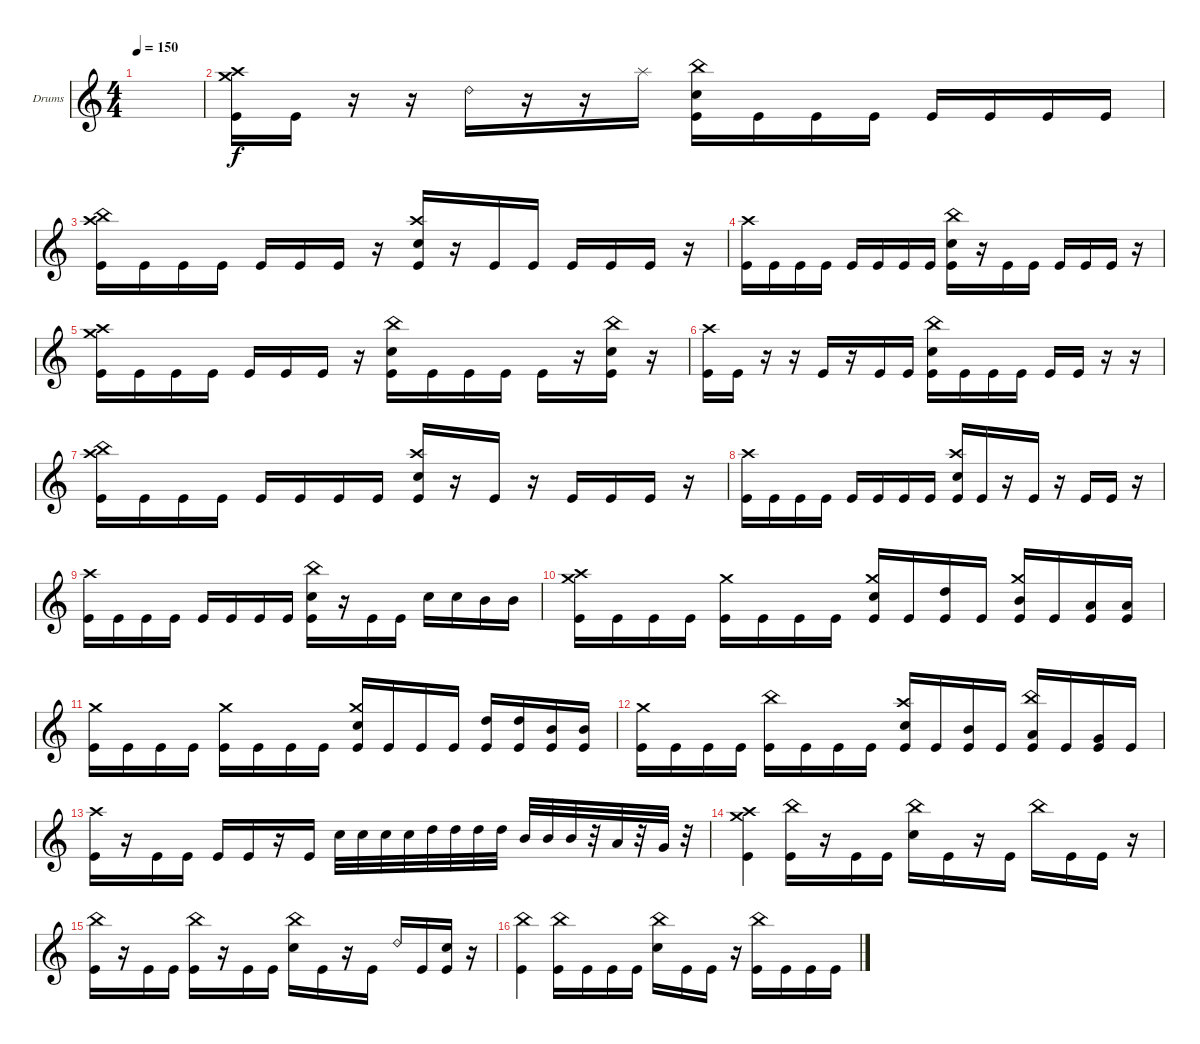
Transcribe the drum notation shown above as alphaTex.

\defaultSystemsLayout 4
\bracketExtendMode groupsimilarinstruments
\firstSystemTrackNameOrientation horizontal
\otherSystemsTrackNameOrientation horizontal
\track ("Drums" "Drums") {instrument percussion}
\staff {score}
\articulation defaults
\ts (4 4)
\tempo 150
\clef g2
\ks c
|
("Kick (hit)" "Crash high (hit)" "Crash medium (hit)").16 "Kick (hit)".16 r.16 r.16 "Ride (bell) 2".16 r.16 r.16 "Splash (hit)".16 ("Kick (hit)" "Snare (hit) 2" "China (hit)").16 "Kick (hit)".16 "Kick (hit)".16 "Kick (hit)".16 "Kick (hit)".16 "Kick (hit)".16 "Kick (hit)".16 "Kick (hit)".16 |
("Kick (hit)" "China (hit)" "Crash high (hit)").16 "Kick (hit)".16 "Kick (hit)".16 "Kick (hit)".16 "Kick (hit)".16 "Kick (hit)".16 "Kick (hit)".16 r.16 ("Kick (hit)" "Snare (hit) 2" "Crash high (hit)").16 r.16 "Kick (hit)".16 "Kick (hit)".16 "Kick (hit)".16 "Kick (hit)".16 "Kick (hit)".16 r.16 |
("Kick (hit)" "Crash high (hit)").16 "Kick (hit)".16 "Kick (hit)".16 "Kick (hit)".16 "Kick (hit)".16 "Kick (hit)".16 "Kick (hit)".16 "Kick (hit)".16 ("Kick (hit)" "Snare (hit) 2" "China (hit)").16 r.16 "Kick (hit)".16 "Kick (hit)".16 "Kick (hit)".16 "Kick (hit)".16 "Kick (hit)".16 r.16 |
("Kick (hit)" "Crash high (hit)" "Crash medium (hit)").16 "Kick (hit)".16 "Kick (hit)".16 "Kick (hit)".16 "Kick (hit)".16 "Kick (hit)".16 "Kick (hit)".16 r.16 ("Kick (hit)" "China (hit)" "Snare (hit) 2").16 "Kick (hit)".16 "Kick (hit)".16 "Kick (hit)".16 "Kick (hit)".16 r.16 ("Kick (hit)" "Snare (hit) 2" "China (hit)").16 r.16 |
("Kick (hit)" "Crash high (hit)").16 "Kick (hit)".16 r.16 r.16 "Kick (hit)".16 r.16 "Kick (hit)".16 "Kick (hit)".16 ("Kick (hit)" "Snare (hit) 2" "China (hit)").16 "Kick (hit)".16 "Kick (hit)".16 "Kick (hit)".16 "Kick (hit)".16 "Kick (hit)".16 r.16 r.16 |
("Kick (hit)" "China (hit)" "Crash high (hit)").16 "Kick (hit)".16 "Kick (hit)".16 "Kick (hit)".16 "Kick (hit)".16 "Kick (hit)".16 "Kick (hit)".16 "Kick (hit)".16 ("Kick (hit)" "Snare (hit) 2" "Crash high (hit)").16 r.16 "Kick (hit)".16 r.16 "Kick (hit)".16 "Kick (hit)".16 "Kick (hit)".16 r.16 |
("Kick (hit)" "Crash high (hit)").16 "Kick (hit)".16 "Kick (hit)".16 "Kick (hit)".16 "Kick (hit)".16 "Kick (hit)".16 "Kick (hit)".16 "Kick (hit)".16 ("Kick (hit)" "Crash high (hit)" "Snare (hit) 2").16 "Kick (hit)".16 r.16 "Kick (hit)".16 r.16 "Kick (hit)".16 "Kick (hit)".16 r.16 |
("Kick (hit)" "Crash high (hit)").16 "Kick (hit)".16 "Kick (hit)".16 "Kick (hit)".16 "Kick (hit)".16 "Kick (hit)".16 "Kick (hit)".16 "Kick (hit)".16 ("Kick (hit)" "Snare (hit) 2" "China (hit)").16 r.16 "Kick (hit)".16 "Kick (hit)".16 "Snare (hit) 2".16 "Snare (hit) 2".16 "Mid Tom (hit)".16 "Mid Tom (hit)".16 |
("Kick (hit)" "Crash high (hit)" "Crash medium (hit)").16 "Kick (hit)".16 "Kick (hit)".16 "Kick (hit)".16 ("Kick (hit)" "Crash medium (hit)").16 "Kick (hit)".16 "Kick (hit)".16 "Kick (hit)".16 ("Kick (hit)" "Crash medium (hit)" "Snare (hit) 2").16 "Kick (hit)".16 ("Kick (hit)" "High Tom (hit)").16 "Kick (hit)".16 ("Kick (hit)" "Crash medium (hit)" "Mid Tom (hit)").16 "Kick (hit)".16 ("Kick (hit)" "Low Tom (hit)").16 ("Kick (hit)" "Low Tom (hit)").16 |
("Kick (hit)" "Crash medium (hit)").16 "Kick (hit)".16 "Kick (hit)".16 "Kick (hit)".16 ("Kick (hit)" "Crash medium (hit)").16 "Kick (hit)".16 "Kick (hit)".16 "Kick (hit)".16 ("Kick (hit)" "Crash medium (hit)" "Snare (hit) 2").16 "Kick (hit)".16 "Kick (hit)".16 "Kick (hit)".16 ("Kick (hit)" "High Tom (hit)").16 ("Kick (hit)" "High Tom (hit)").16 ("Kick (hit)" "Mid Tom (hit)").16 ("Kick (hit)" "Mid Tom (hit)").16 |
("Kick (hit)" "Crash medium (hit)").16 "Kick (hit)".16 "Kick (hit)".16 "Kick (hit)".16 ("Kick (hit)" "China (hit)").16 "Kick (hit)".16 "Kick (hit)".16 "Kick (hit)".16 ("Kick (hit)" "Snare (hit) 2" "Crash high (hit)").16 "Kick (hit)".16 ("Kick (hit)" "Mid Tom (hit)").16 "Kick (hit)".16 ("Kick (hit)" "China (hit)" "Low Tom (hit)").16 "Kick (hit)".16 ("Kick (hit)" "Very Low Tom (hit)").16 "Kick (hit)".16 |
("Kick (hit)" "Crash high (hit)").16 r.16 "Kick (hit)".16 "Kick (hit)".16 "Kick (hit)".16 "Kick (hit)".16 r.16 "Kick (hit)".16 "Snare (hit) 2".32 "Snare (hit) 2".32 "Snare (hit) 2".32 "Snare (hit) 2".32 "High Tom (hit)".32 "High Tom (hit)".32 "High Tom (hit)".32 "High Tom (hit)".32 "Mid Tom (hit)".32 "Mid Tom (hit)".32 "Mid Tom (hit)".32 r.32 "Low Tom (hit)".32 r.32 "Very Low Tom (hit)".32 r.32 |
("Kick (hit)" "Crash high (hit)" "Crash medium (hit)").4 ("Kick (hit)" "China (hit)").16 r.16 "Kick (hit)".16 "Kick (hit)".16 ("China (hit)" "Snare (hit) 2").16 "Kick (hit)".16 r.16 "Kick (hit)".16 "China (hit)".16 "Kick (hit)".16 "Kick (hit)".16 r.16 |
("Kick (hit)" "China (hit)").16 r.16 "Kick (hit)".16 "Kick (hit)".16 ("Kick (hit)" "China (hit)").16 r.16 "Kick (hit)".16 "Kick (hit)".16 ("China (hit)" "Snare (hit) 2").16 "Kick (hit)".16 r.16 "Kick (hit)".16 "Ride (bell) 2".16 "Kick (hit)".16 ("Kick (hit)" "Snare (hit) 2").16 r.16 |
("Kick (hit)" "China (hit)").4 ("Kick (hit)" "China (hit)").16 "Kick (hit)".16 "Kick (hit)".16 "Kick (hit)".16 ("China (hit)" "Snare (hit) 2").16 "Kick (hit)".16 "Kick (hit)".16 r.16 ("Kick (hit)" "China (hit)").16 "Kick (hit)".16 "Kick (hit)".16 "Kick (hit)".16
